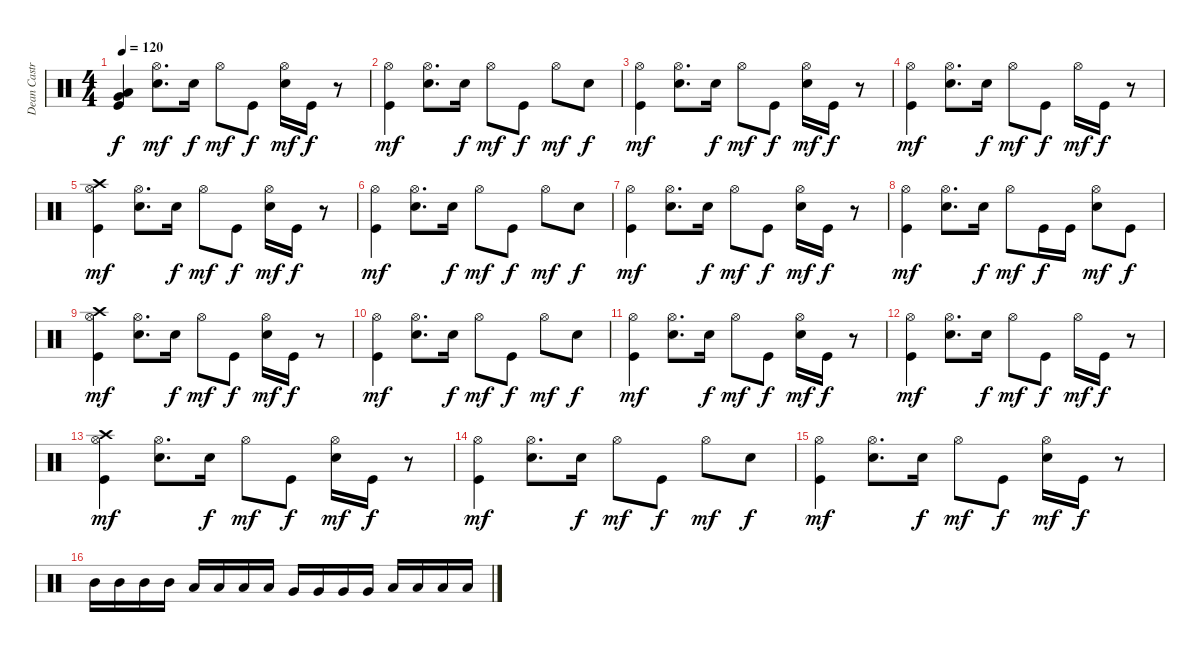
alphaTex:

\track ("Dean Castronova" "Dean Castr") {instrument percussion}
\staff {score}
\articulation defaults
\ts (4 4)
\tempo 120
\clef neutral
\ks c
("Very Low Tom (hit)" "Low Floor Tom (hit)" "Kick (hit)").4{dy f} ("Hi-Hat (open)" "Electric Snare (hit)").8{d dy mf} "Electric Snare (hit)".16{dy f} "Hi-Hat (open)".8{dy mf} "Kick (hit)".8{dy f} ("Hi-Hat (open)" "Electric Snare (hit)").16{dy mf} "Kick (hit)".16{dy f} r.8 |
("Hi-Hat (open)" "Kick (hit)").4{dy mf} ("Hi-Hat (open)" "Electric Snare (hit)").8{d} "Electric Snare (hit)".16{dy f} "Hi-Hat (open)".8{dy mf} "Kick (hit)".8{dy f} "Hi-Hat (open)".8{dy mf} "Electric Snare (hit)".8{dy f} |
("Hi-Hat (open)" "Kick (hit)").4{dy mf} ("Hi-Hat (open)" "Electric Snare (hit)").8{d} "Electric Snare (hit)".16{dy f} "Hi-Hat (open)".8{dy mf} "Kick (hit)".8{dy f} ("Hi-Hat (open)" "Electric Snare (hit)").16{dy mf} "Kick (hit)".16{dy f} r.8 |
("Hi-Hat (open)" "Kick (hit)").4{dy mf} ("Hi-Hat (open)" "Electric Snare (hit)").8{d} "Electric Snare (hit)".16{dy f} "Hi-Hat (open)".8{dy mf} "Kick (hit)".8{dy f} "Hi-Hat (open)".16{dy mf} "Kick (hit)".16{dy f} r.8 |
("Crash high (hit)" "Hi-Hat (open)" "Kick (hit)").4{dy mf} ("Hi-Hat (open)" "Electric Snare (hit)").8{d} "Electric Snare (hit)".16{dy f} "Hi-Hat (open)".8{dy mf} "Kick (hit)".8{dy f} ("Hi-Hat (open)" "Electric Snare (hit)").16{dy mf} "Kick (hit)".16{dy f} r.8 |
("Hi-Hat (open)" "Kick (hit)").4{dy mf} ("Hi-Hat (open)" "Electric Snare (hit)").8{d} "Electric Snare (hit)".16{dy f} "Hi-Hat (open)".8{dy mf} "Kick (hit)".8{dy f} "Hi-Hat (open)".8{dy mf} "Electric Snare (hit)".8{dy f} |
("Hi-Hat (open)" "Kick (hit)").4{dy mf} ("Hi-Hat (open)" "Electric Snare (hit)").8{d} "Electric Snare (hit)".16{dy f} "Hi-Hat (open)".8{dy mf} "Kick (hit)".8{dy f} ("Hi-Hat (open)" "Electric Snare (hit)").16{dy mf} "Kick (hit)".16{dy f} r.8 |
("Hi-Hat (open)" "Kick (hit)").4{dy mf} ("Hi-Hat (open)" "Electric Snare (hit)").8{d} "Electric Snare (hit)".16{dy f} "Hi-Hat (open)".8{dy mf} "Kick (hit)".16{dy f} "Kick (hit)".16 ("Hi-Hat (open)" "Electric Snare (hit)").8{dy mf} "Kick (hit)".8{dy f} |
("Crash high (hit)" "Hi-Hat (open)" "Kick (hit)").4{dy mf} ("Hi-Hat (open)" "Electric Snare (hit)").8{d} "Electric Snare (hit)".16{dy f} "Hi-Hat (open)".8{dy mf} "Kick (hit)".8{dy f} ("Hi-Hat (open)" "Electric Snare (hit)").16{dy mf} "Kick (hit)".16{dy f} r.8 |
("Hi-Hat (open)" "Kick (hit)").4{dy mf} ("Hi-Hat (open)" "Electric Snare (hit)").8{d} "Electric Snare (hit)".16{dy f} "Hi-Hat (open)".8{dy mf} "Kick (hit)".8{dy f} "Hi-Hat (open)".8{dy mf} "Electric Snare (hit)".8{dy f} |
("Hi-Hat (open)" "Kick (hit)").4{dy mf} ("Hi-Hat (open)" "Electric Snare (hit)").8{d} "Electric Snare (hit)".16{dy f} "Hi-Hat (open)".8{dy mf} "Kick (hit)".8{dy f} ("Hi-Hat (open)" "Electric Snare (hit)").16{dy mf} "Kick (hit)".16{dy f} r.8 |
("Hi-Hat (open)" "Kick (hit)").4{dy mf} ("Hi-Hat (open)" "Electric Snare (hit)").8{d} "Electric Snare (hit)".16{dy f} "Hi-Hat (open)".8{dy mf} "Kick (hit)".8{dy f} "Hi-Hat (open)".16{dy mf} "Kick (hit)".16{dy f} r.8 |
("Crash high (hit)" "Hi-Hat (open)" "Kick (hit)").4{dy mf} ("Hi-Hat (open)" "Electric Snare (hit)").8{d} "Electric Snare (hit)".16{dy f} "Hi-Hat (open)".8{dy mf} "Kick (hit)".8{dy f} ("Hi-Hat (open)" "Electric Snare (hit)").16{dy mf} "Kick (hit)".16{dy f} r.8 |
("Hi-Hat (open)" "Kick (hit)").4{dy mf} ("Hi-Hat (open)" "Electric Snare (hit)").8{d} "Electric Snare (hit)".16{dy f} "Hi-Hat (open)".8{dy mf} "Kick (hit)".8{dy f} "Hi-Hat (open)".8{dy mf} "Electric Snare (hit)".8{dy f} |
("Hi-Hat (open)" "Kick (hit)").4{dy mf} ("Hi-Hat (open)" "Electric Snare (hit)").8{d} "Electric Snare (hit)".16{dy f} "Hi-Hat (open)".8{dy mf} "Kick (hit)".8{dy f} ("Hi-Hat (open)" "Electric Snare (hit)").16{dy mf} "Kick (hit)".16{dy f} r.8 |
"Mid Tom (hit)".16 "Mid Tom (hit)".16 "Mid Tom (hit)".16 "Mid Tom (hit)".16 "Low Tom (hit)".16 "Low Tom (hit)".16 "Low Tom (hit)".16 "Low Tom (hit)".16 "Very Low Tom (hit)".16 "Very Low Tom (hit)".16 "Very Low Tom (hit)".16 "Very Low Tom (hit)".16 "Low Floor Tom (hit)".16 "Low Floor Tom (hit)".16 "Low Floor Tom (hit)".16 "Low Floor Tom (hit)".16
